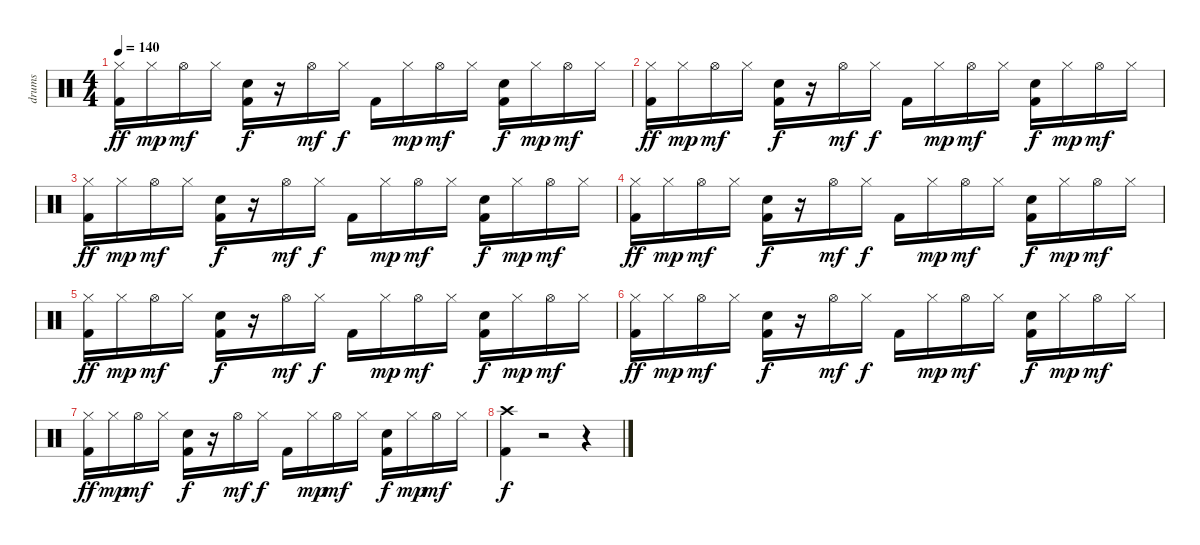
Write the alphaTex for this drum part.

\track ("drums" "drums") {instrument percussion}
\staff {score}
\articulation defaults
\ts (4 4)
\tempo 140
\clef neutral
\ks c
("Kick (hit) 2" "Hi-Hat (closed)").16{dy ff} "Hi-Hat (closed)".16{dy mp} "Hi-Hat (open)".16{dy mf} "Hi-Hat (closed)".16 ("Kick (hit) 2" "Hand Clap (hit)").16{dy f} r.16 "Hi-Hat (open)".16{dy mf} "Hi-Hat (closed)".16{dy f} "Kick (hit) 2".16 "Hi-Hat (closed)".16{dy mp} "Hi-Hat (open)".16{dy mf} "Hi-Hat (closed)".16 ("Kick (hit) 2" "Hand Clap (hit)").16{dy f} "Hi-Hat (closed)".16{dy mp} "Hi-Hat (open)".16{dy mf} "Hi-Hat (closed)".16 |
("Kick (hit) 2" "Hi-Hat (closed)").16{dy ff} "Hi-Hat (closed)".16{dy mp} "Hi-Hat (open)".16{dy mf} "Hi-Hat (closed)".16 ("Kick (hit) 2" "Hand Clap (hit)").16{dy f} r.16 "Hi-Hat (open)".16{dy mf} "Hi-Hat (closed)".16{dy f} "Kick (hit) 2".16 "Hi-Hat (closed)".16{dy mp} "Hi-Hat (open)".16{dy mf} "Hi-Hat (closed)".16 ("Kick (hit) 2" "Hand Clap (hit)").16{dy f} "Hi-Hat (closed)".16{dy mp} "Hi-Hat (open)".16{dy mf} "Hi-Hat (closed)".16 |
("Kick (hit) 2" "Hi-Hat (closed)").16{dy ff} "Hi-Hat (closed)".16{dy mp} "Hi-Hat (open)".16{dy mf} "Hi-Hat (closed)".16 ("Kick (hit) 2" "Hand Clap (hit)").16{dy f} r.16 "Hi-Hat (open)".16{dy mf} "Hi-Hat (closed)".16{dy f} "Kick (hit) 2".16 "Hi-Hat (closed)".16{dy mp} "Hi-Hat (open)".16{dy mf} "Hi-Hat (closed)".16 ("Kick (hit) 2" "Hand Clap (hit)").16{dy f} "Hi-Hat (closed)".16{dy mp} "Hi-Hat (open)".16{dy mf} "Hi-Hat (closed)".16 |
("Kick (hit) 2" "Hi-Hat (closed)").16{dy ff} "Hi-Hat (closed)".16{dy mp} "Hi-Hat (open)".16{dy mf} "Hi-Hat (closed)".16 ("Kick (hit) 2" "Hand Clap (hit)").16{dy f} r.16 "Hi-Hat (open)".16{dy mf} "Hi-Hat (closed)".16{dy f} "Kick (hit) 2".16 "Hi-Hat (closed)".16{dy mp} "Hi-Hat (open)".16{dy mf} "Hi-Hat (closed)".16 ("Kick (hit) 2" "Hand Clap (hit)").16{dy f} "Hi-Hat (closed)".16{dy mp} "Hi-Hat (open)".16{dy mf} "Hi-Hat (closed)".16 |
("Kick (hit) 2" "Hi-Hat (closed)").16{dy ff} "Hi-Hat (closed)".16{dy mp} "Hi-Hat (open)".16{dy mf} "Hi-Hat (closed)".16 ("Kick (hit) 2" "Hand Clap (hit)").16{dy f} r.16 "Hi-Hat (open)".16{dy mf} "Hi-Hat (closed)".16{dy f} "Kick (hit) 2".16 "Hi-Hat (closed)".16{dy mp} "Hi-Hat (open)".16{dy mf} "Hi-Hat (closed)".16 ("Kick (hit) 2" "Hand Clap (hit)").16{dy f} "Hi-Hat (closed)".16{dy mp} "Hi-Hat (open)".16{dy mf} "Hi-Hat (closed)".16 |
("Kick (hit) 2" "Hi-Hat (closed)").16{dy ff} "Hi-Hat (closed)".16{dy mp} "Hi-Hat (open)".16{dy mf} "Hi-Hat (closed)".16 ("Kick (hit) 2" "Hand Clap (hit)").16{dy f} r.16 "Hi-Hat (open)".16{dy mf} "Hi-Hat (closed)".16{dy f} "Kick (hit) 2".16 "Hi-Hat (closed)".16{dy mp} "Hi-Hat (open)".16{dy mf} "Hi-Hat (closed)".16 ("Kick (hit) 2" "Hand Clap (hit)").16{dy f} "Hi-Hat (closed)".16{dy mp} "Hi-Hat (open)".16{dy mf} "Hi-Hat (closed)".16 |
("Kick (hit) 2" "Hi-Hat (closed)").16{dy ff} "Hi-Hat (closed)".16{dy mp} "Hi-Hat (open)".16{dy mf} "Hi-Hat (closed)".16 ("Kick (hit) 2" "Hand Clap (hit)").16{dy f} r.16 "Hi-Hat (open)".16{dy mf} "Hi-Hat (closed)".16{dy f} "Kick (hit) 2".16 "Hi-Hat (closed)".16{dy mp} "Hi-Hat (open)".16{dy mf} "Hi-Hat (closed)".16 ("Kick (hit) 2" "Hand Clap (hit)").16{dy f} "Hi-Hat (closed)".16{dy mp} "Hi-Hat (open)".16{dy mf} "Hi-Hat (closed)".16 |
("Kick (hit) 2" "Crash high (hit)").4{dy f} r.2 r.4
